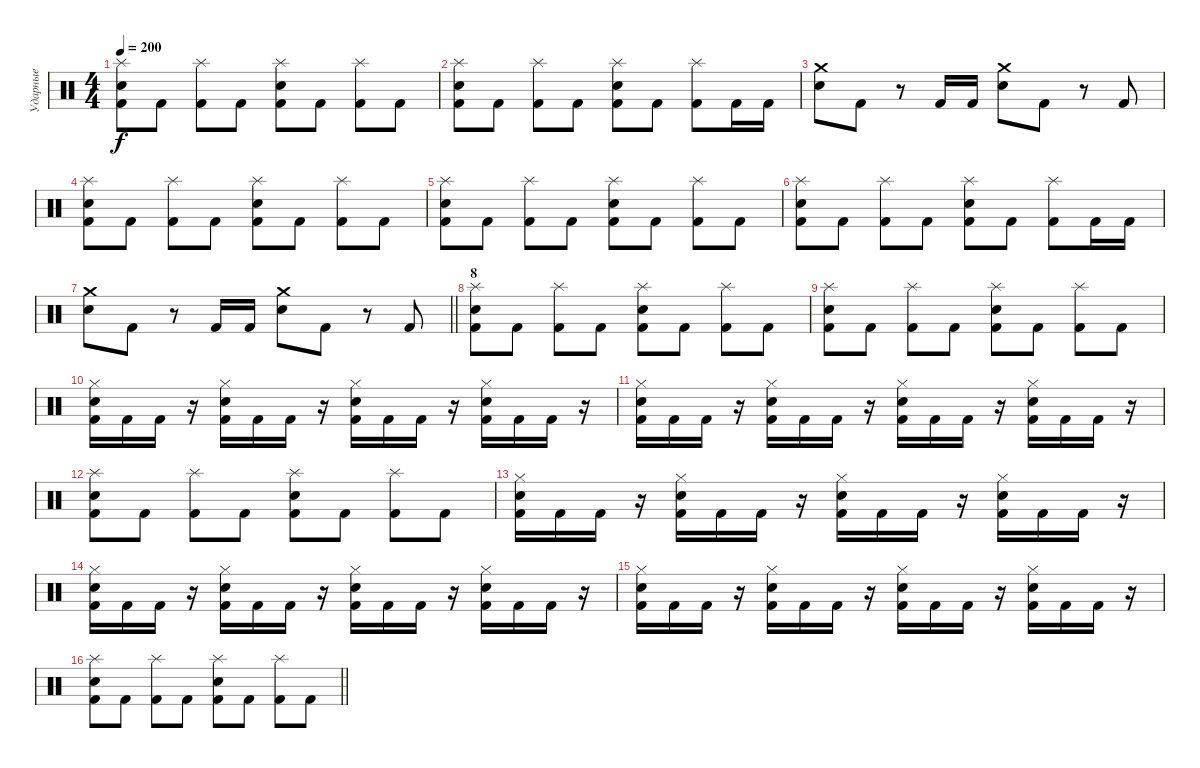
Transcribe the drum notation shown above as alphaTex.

\track ("Ударные" "Ударные") {instrument percussion}
\staff {score}
\articulation defaults
\ts (4 4)
\tempo 200
\clef neutral
\ks c
("Splash (hit)" "Electric Snare (hit)" "Kick (hit) 2").8{dy f} "Kick (hit) 2".8 ("Splash (hit)" "Kick (hit) 2").8 "Kick (hit) 2".8 ("Splash (hit)" "Electric Snare (hit)" "Kick (hit) 2").8 "Kick (hit) 2".8 ("Splash (hit)" "Kick (hit) 2").8 "Kick (hit) 2".8 |
("Splash (hit)" "Electric Snare (hit)" "Kick (hit) 2").8 "Kick (hit) 2".8 ("Splash (hit)" "Kick (hit) 2").8 "Kick (hit) 2".8 ("Splash (hit)" "Electric Snare (hit)" "Kick (hit) 2").8 "Kick (hit) 2".8 ("Splash (hit)" "Kick (hit) 2").8 "Kick (hit) 2".16 "Kick (hit) 2".16 |
("Crash medium (hit)" "Electric Snare (hit)").8 "Kick (hit) 2".8 r.8 "Kick (hit) 2".16 "Kick (hit) 2".16 ("Crash medium (hit)" "Electric Snare (hit)").8 "Kick (hit) 2".8 r.8 "Kick (hit) 2".8 |
("Splash (hit)" "Electric Snare (hit)" "Kick (hit) 2").8 "Kick (hit) 2".8 ("Splash (hit)" "Kick (hit) 2").8 "Kick (hit) 2".8 ("Splash (hit)" "Electric Snare (hit)" "Kick (hit) 2").8 "Kick (hit) 2".8 ("Splash (hit)" "Kick (hit) 2").8 "Kick (hit) 2".8 |
("Splash (hit)" "Electric Snare (hit)" "Kick (hit) 2").8 "Kick (hit) 2".8 ("Splash (hit)" "Kick (hit) 2").8 "Kick (hit) 2".8 ("Splash (hit)" "Electric Snare (hit)" "Kick (hit) 2").8 "Kick (hit) 2".8 ("Splash (hit)" "Kick (hit) 2").8 "Kick (hit) 2".8 |
("Splash (hit)" "Electric Snare (hit)" "Kick (hit) 2").8 "Kick (hit) 2".8 ("Splash (hit)" "Kick (hit) 2").8 "Kick (hit) 2".8 ("Splash (hit)" "Electric Snare (hit)" "Kick (hit) 2").8 "Kick (hit) 2".8 ("Splash (hit)" "Kick (hit) 2").8 "Kick (hit) 2".16 "Kick (hit) 2".16 |
\barLineRight lightlight
("Crash medium (hit)" "Electric Snare (hit)").8 "Kick (hit) 2".8 r.8 "Kick (hit) 2".16 "Kick (hit) 2".16 ("Crash medium (hit)" "Electric Snare (hit)").8 "Kick (hit) 2".8 r.8 "Kick (hit) 2".8 |
\section ("" "8")
("Splash (hit)" "Electric Snare (hit)" "Kick (hit) 2").8 "Kick (hit) 2".8 ("Splash (hit)" "Kick (hit) 2").8 "Kick (hit) 2".8 ("Splash (hit)" "Electric Snare (hit)" "Kick (hit) 2").8 "Kick (hit) 2".8 ("Splash (hit)" "Kick (hit) 2").8 "Kick (hit) 2".8 |
("Splash (hit)" "Electric Snare (hit)" "Kick (hit) 2").8 "Kick (hit) 2".8 ("Splash (hit)" "Kick (hit) 2").8 "Kick (hit) 2".8 ("Splash (hit)" "Electric Snare (hit)" "Kick (hit) 2").8 "Kick (hit) 2".8 ("Splash (hit)" "Kick (hit) 2").8 "Kick (hit) 2".8 |
("Hi-Hat (closed)" "Electric Snare (hit)" "Kick (hit) 2").16 "Kick (hit) 2".16 "Kick (hit) 2".16 r.16 ("Hi-Hat (closed)" "Electric Snare (hit)" "Kick (hit) 2").16 "Kick (hit) 2".16 "Kick (hit) 2".16 r.16 ("Hi-Hat (closed)" "Electric Snare (hit)" "Kick (hit) 2").16 "Kick (hit) 2".16 "Kick (hit) 2".16 r.16 ("Hi-Hat (closed)" "Electric Snare (hit)" "Kick (hit) 2").16 "Kick (hit) 2".16 "Kick (hit) 2".16 r.16 |
("Hi-Hat (closed)" "Electric Snare (hit)" "Kick (hit) 2").16 "Kick (hit) 2".16 "Kick (hit) 2".16 r.16 ("Hi-Hat (closed)" "Electric Snare (hit)" "Kick (hit) 2").16 "Kick (hit) 2".16 "Kick (hit) 2".16 r.16 ("Hi-Hat (closed)" "Electric Snare (hit)" "Kick (hit) 2").16 "Kick (hit) 2".16 "Kick (hit) 2".16 r.16 ("Hi-Hat (closed)" "Electric Snare (hit)" "Kick (hit) 2").16 "Kick (hit) 2".16 "Kick (hit) 2".16 r.16 |
("Splash (hit)" "Electric Snare (hit)" "Kick (hit) 2").8 "Kick (hit) 2".8 ("Splash (hit)" "Kick (hit) 2").8 "Kick (hit) 2".8 ("Splash (hit)" "Electric Snare (hit)" "Kick (hit) 2").8 "Kick (hit) 2".8 ("Splash (hit)" "Kick (hit) 2").8 "Kick (hit) 2".8 |
("Hi-Hat (closed)" "Electric Snare (hit)" "Kick (hit) 2").16 "Kick (hit) 2".16 "Kick (hit) 2".16 r.16 ("Hi-Hat (closed)" "Electric Snare (hit)" "Kick (hit) 2").16 "Kick (hit) 2".16 "Kick (hit) 2".16 r.16 ("Hi-Hat (closed)" "Electric Snare (hit)" "Kick (hit) 2").16 "Kick (hit) 2".16 "Kick (hit) 2".16 r.16 ("Hi-Hat (closed)" "Electric Snare (hit)" "Kick (hit) 2").16 "Kick (hit) 2".16 "Kick (hit) 2".16 r.16 |
("Hi-Hat (closed)" "Electric Snare (hit)" "Kick (hit) 2").16 "Kick (hit) 2".16 "Kick (hit) 2".16 r.16 ("Hi-Hat (closed)" "Electric Snare (hit)" "Kick (hit) 2").16 "Kick (hit) 2".16 "Kick (hit) 2".16 r.16 ("Hi-Hat (closed)" "Electric Snare (hit)" "Kick (hit) 2").16 "Kick (hit) 2".16 "Kick (hit) 2".16 r.16 ("Hi-Hat (closed)" "Electric Snare (hit)" "Kick (hit) 2").16 "Kick (hit) 2".16 "Kick (hit) 2".16 r.16 |
("Hi-Hat (closed)" "Electric Snare (hit)" "Kick (hit) 2").16 "Kick (hit) 2".16 "Kick (hit) 2".16 r.16 ("Hi-Hat (closed)" "Electric Snare (hit)" "Kick (hit) 2").16 "Kick (hit) 2".16 "Kick (hit) 2".16 r.16 ("Hi-Hat (closed)" "Electric Snare (hit)" "Kick (hit) 2").16 "Kick (hit) 2".16 "Kick (hit) 2".16 r.16 ("Hi-Hat (closed)" "Electric Snare (hit)" "Kick (hit) 2").16 "Kick (hit) 2".16 "Kick (hit) 2".16 r.16 |
\barLineRight lightlight
("Splash (hit)" "Electric Snare (hit)" "Kick (hit) 2").8 "Kick (hit) 2".8 ("Splash (hit)" "Kick (hit) 2").8 "Kick (hit) 2".8 ("Splash (hit)" "Electric Snare (hit)" "Kick (hit) 2").8 "Kick (hit) 2".8 ("Splash (hit)" "Kick (hit) 2").8 "Kick (hit) 2".8
